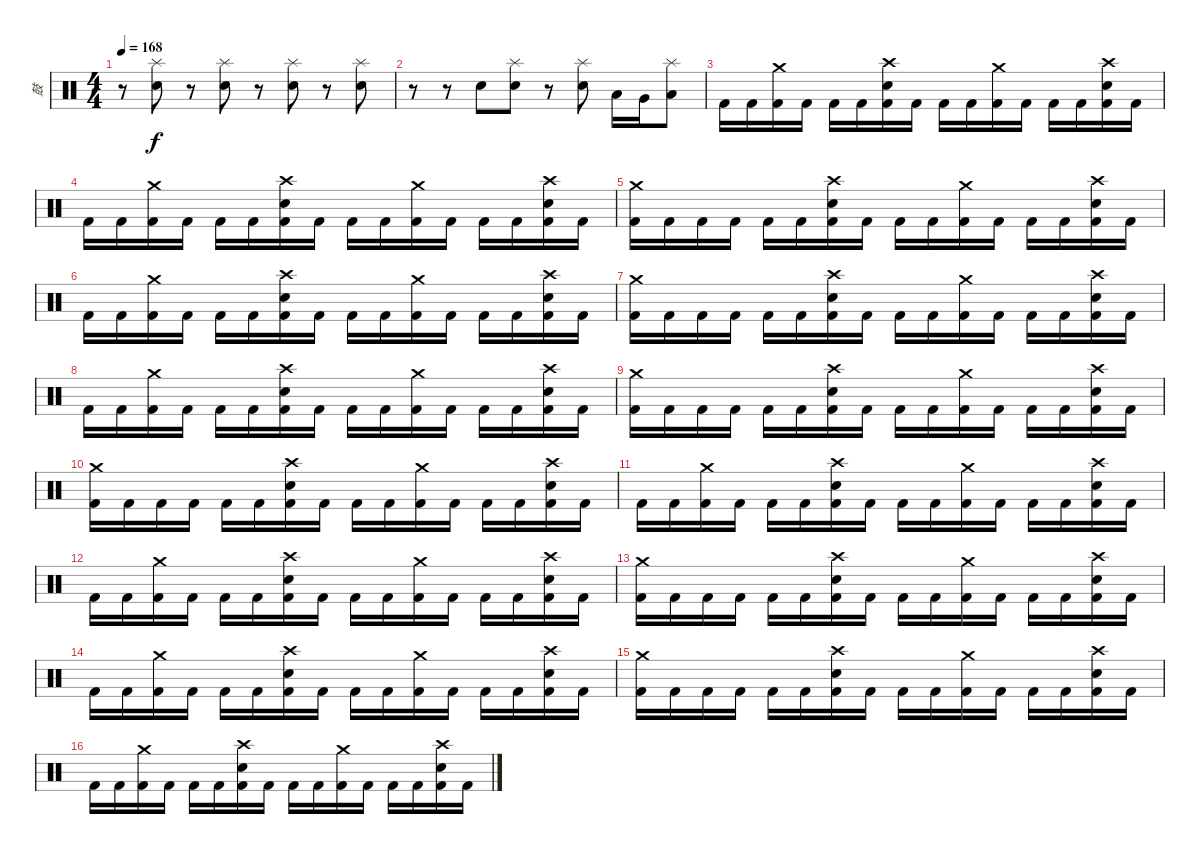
\track ("鼓" "鼓") {instrument percussion}
\staff {score}
\articulation defaults
\ts (4 4)
\tempo 168
\clef neutral
\ks c
r.8{dy f} ("Splash (hit)" "Snare (hit) 2").8 r.8 ("Splash (hit)" "Snare (hit) 2").8 r.8 ("Splash (hit)" "Snare (hit) 2").8 r.8 ("Splash (hit)" "Snare (hit) 2").8 |
r.8 r.8 "Snare (hit) 2".8 ("Splash (hit)" "Snare (hit) 2").8 r.8 ("Splash (hit)" "Snare (hit) 2").8 "Low Tom (hit)".16 "Very Low Tom (hit)".16 ("Splash (hit)" "Low Floor Tom (hit)").8 |
"Kick (hit) 2".16 "Kick (hit) 2".16 ("Crash medium (hit)" "Kick (hit) 2").16 "Kick (hit) 2".16 "Kick (hit) 2".16 "Kick (hit) 2".16 ("Crash high (hit)" "Snare (hit) 2" "Kick (hit) 2").16 "Kick (hit) 2".16 "Kick (hit) 2".16 "Kick (hit) 2".16 ("Crash medium (hit)" "Kick (hit) 2").16 "Kick (hit) 2".16 "Kick (hit) 2".16 "Kick (hit) 2".16 ("Crash high (hit)" "Snare (hit) 2" "Kick (hit) 2").16 "Kick (hit) 2".16 |
"Kick (hit) 2".16 "Kick (hit) 2".16 ("Crash medium (hit)" "Kick (hit) 2").16 "Kick (hit) 2".16 "Kick (hit) 2".16 "Kick (hit) 2".16 ("Crash high (hit)" "Snare (hit) 2" "Kick (hit) 2").16 "Kick (hit) 2".16 "Kick (hit) 2".16 "Kick (hit) 2".16 ("Crash medium (hit)" "Kick (hit) 2").16 "Kick (hit) 2".16 "Kick (hit) 2".16 "Kick (hit) 2".16 ("Crash high (hit)" "Snare (hit) 2" "Kick (hit) 2").16 "Kick (hit) 2".16 |
("Crash medium (hit)" "Kick (hit) 2").16 "Kick (hit) 2".16 "Kick (hit) 2".16 "Kick (hit) 2".16 "Kick (hit) 2".16 "Kick (hit) 2".16 ("Crash high (hit)" "Snare (hit) 2" "Kick (hit) 2").16 "Kick (hit) 2".16 "Kick (hit) 2".16 "Kick (hit) 2".16 ("Crash medium (hit)" "Kick (hit) 2").16 "Kick (hit) 2".16 "Kick (hit) 2".16 "Kick (hit) 2".16 ("Crash high (hit)" "Snare (hit) 2" "Kick (hit) 2").16 "Kick (hit) 2".16 |
"Kick (hit) 2".16 "Kick (hit) 2".16 ("Crash medium (hit)" "Kick (hit) 2").16 "Kick (hit) 2".16 "Kick (hit) 2".16 "Kick (hit) 2".16 ("Crash high (hit)" "Snare (hit) 2" "Kick (hit) 2").16 "Kick (hit) 2".16 "Kick (hit) 2".16 "Kick (hit) 2".16 ("Crash medium (hit)" "Kick (hit) 2").16 "Kick (hit) 2".16 "Kick (hit) 2".16 "Kick (hit) 2".16 ("Crash high (hit)" "Snare (hit) 2" "Kick (hit) 2").16 "Kick (hit) 2".16 |
("Crash medium (hit)" "Kick (hit) 2").16 "Kick (hit) 2".16 "Kick (hit) 2".16 "Kick (hit) 2".16 "Kick (hit) 2".16 "Kick (hit) 2".16 ("Crash high (hit)" "Snare (hit) 2" "Kick (hit) 2").16 "Kick (hit) 2".16 "Kick (hit) 2".16 "Kick (hit) 2".16 ("Crash medium (hit)" "Kick (hit) 2").16 "Kick (hit) 2".16 "Kick (hit) 2".16 "Kick (hit) 2".16 ("Crash high (hit)" "Snare (hit) 2" "Kick (hit) 2").16 "Kick (hit) 2".16 |
"Kick (hit) 2".16 "Kick (hit) 2".16 ("Crash medium (hit)" "Kick (hit) 2").16 "Kick (hit) 2".16 "Kick (hit) 2".16 "Kick (hit) 2".16 ("Crash high (hit)" "Snare (hit) 2" "Kick (hit) 2").16 "Kick (hit) 2".16 "Kick (hit) 2".16 "Kick (hit) 2".16 ("Crash medium (hit)" "Kick (hit) 2").16 "Kick (hit) 2".16 "Kick (hit) 2".16 "Kick (hit) 2".16 ("Crash high (hit)" "Snare (hit) 2" "Kick (hit) 2").16 "Kick (hit) 2".16 |
("Crash medium (hit)" "Kick (hit) 2").16 "Kick (hit) 2".16 "Kick (hit) 2".16 "Kick (hit) 2".16 "Kick (hit) 2".16 "Kick (hit) 2".16 ("Crash high (hit)" "Snare (hit) 2" "Kick (hit) 2").16 "Kick (hit) 2".16 "Kick (hit) 2".16 "Kick (hit) 2".16 ("Crash medium (hit)" "Kick (hit) 2").16 "Kick (hit) 2".16 "Kick (hit) 2".16 "Kick (hit) 2".16 ("Crash high (hit)" "Snare (hit) 2" "Kick (hit) 2").16 "Kick (hit) 2".16 |
("Crash medium (hit)" "Kick (hit) 2").16 "Kick (hit) 2".16 "Kick (hit) 2".16 "Kick (hit) 2".16 "Kick (hit) 2".16 "Kick (hit) 2".16 ("Crash high (hit)" "Snare (hit) 2" "Kick (hit) 2").16 "Kick (hit) 2".16 "Kick (hit) 2".16 "Kick (hit) 2".16 ("Crash medium (hit)" "Kick (hit) 2").16 "Kick (hit) 2".16 "Kick (hit) 2".16 "Kick (hit) 2".16 ("Crash high (hit)" "Snare (hit) 2" "Kick (hit) 2").16 "Kick (hit) 2".16 |
"Kick (hit) 2".16 "Kick (hit) 2".16 ("Crash medium (hit)" "Kick (hit) 2").16 "Kick (hit) 2".16 "Kick (hit) 2".16 "Kick (hit) 2".16 ("Crash high (hit)" "Snare (hit) 2" "Kick (hit) 2").16 "Kick (hit) 2".16 "Kick (hit) 2".16 "Kick (hit) 2".16 ("Crash medium (hit)" "Kick (hit) 2").16 "Kick (hit) 2".16 "Kick (hit) 2".16 "Kick (hit) 2".16 ("Crash high (hit)" "Snare (hit) 2" "Kick (hit) 2").16 "Kick (hit) 2".16 |
"Kick (hit) 2".16 "Kick (hit) 2".16 ("Crash medium (hit)" "Kick (hit) 2").16 "Kick (hit) 2".16 "Kick (hit) 2".16 "Kick (hit) 2".16 ("Crash high (hit)" "Snare (hit) 2" "Kick (hit) 2").16 "Kick (hit) 2".16 "Kick (hit) 2".16 "Kick (hit) 2".16 ("Crash medium (hit)" "Kick (hit) 2").16 "Kick (hit) 2".16 "Kick (hit) 2".16 "Kick (hit) 2".16 ("Crash high (hit)" "Snare (hit) 2" "Kick (hit) 2").16 "Kick (hit) 2".16 |
("Crash medium (hit)" "Kick (hit) 2").16 "Kick (hit) 2".16 "Kick (hit) 2".16 "Kick (hit) 2".16 "Kick (hit) 2".16 "Kick (hit) 2".16 ("Crash high (hit)" "Snare (hit) 2" "Kick (hit) 2").16 "Kick (hit) 2".16 "Kick (hit) 2".16 "Kick (hit) 2".16 ("Crash medium (hit)" "Kick (hit) 2").16 "Kick (hit) 2".16 "Kick (hit) 2".16 "Kick (hit) 2".16 ("Crash high (hit)" "Snare (hit) 2" "Kick (hit) 2").16 "Kick (hit) 2".16 |
"Kick (hit) 2".16 "Kick (hit) 2".16 ("Crash medium (hit)" "Kick (hit) 2").16 "Kick (hit) 2".16 "Kick (hit) 2".16 "Kick (hit) 2".16 ("Crash high (hit)" "Snare (hit) 2" "Kick (hit) 2").16 "Kick (hit) 2".16 "Kick (hit) 2".16 "Kick (hit) 2".16 ("Crash medium (hit)" "Kick (hit) 2").16 "Kick (hit) 2".16 "Kick (hit) 2".16 "Kick (hit) 2".16 ("Crash high (hit)" "Snare (hit) 2" "Kick (hit) 2").16 "Kick (hit) 2".16 |
("Crash medium (hit)" "Kick (hit) 2").16 "Kick (hit) 2".16 "Kick (hit) 2".16 "Kick (hit) 2".16 "Kick (hit) 2".16 "Kick (hit) 2".16 ("Crash high (hit)" "Snare (hit) 2" "Kick (hit) 2").16 "Kick (hit) 2".16 "Kick (hit) 2".16 "Kick (hit) 2".16 ("Crash medium (hit)" "Kick (hit) 2").16 "Kick (hit) 2".16 "Kick (hit) 2".16 "Kick (hit) 2".16 ("Crash high (hit)" "Snare (hit) 2" "Kick (hit) 2").16 "Kick (hit) 2".16 |
"Kick (hit) 2".16 "Kick (hit) 2".16 ("Crash medium (hit)" "Kick (hit) 2").16 "Kick (hit) 2".16 "Kick (hit) 2".16 "Kick (hit) 2".16 ("Crash high (hit)" "Snare (hit) 2" "Kick (hit) 2").16 "Kick (hit) 2".16 "Kick (hit) 2".16 "Kick (hit) 2".16 ("Crash medium (hit)" "Kick (hit) 2").16 "Kick (hit) 2".16 "Kick (hit) 2".16 "Kick (hit) 2".16 ("Crash high (hit)" "Snare (hit) 2" "Kick (hit) 2").16 "Kick (hit) 2".16
